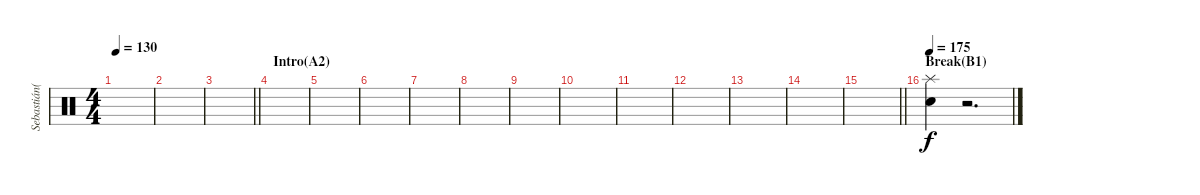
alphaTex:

\track ("Sebastián(Bateria)" "Sebastián(") {instrument percussion}
\staff {score}
\articulation defaults
\ts (4 4)
\tempo 130
\clef neutral
\ks c
|
|
\barLineRight lightlight
|
\section ("" "Intro(A2)")
|
|
|
|
|
|
|
|
|
|
|
\barLineRight lightlight
|
\section ("" "Break(B1)")
\tempo 175
("Electric Snare (hit)" "Splash (hit)").4 r.2{d}
